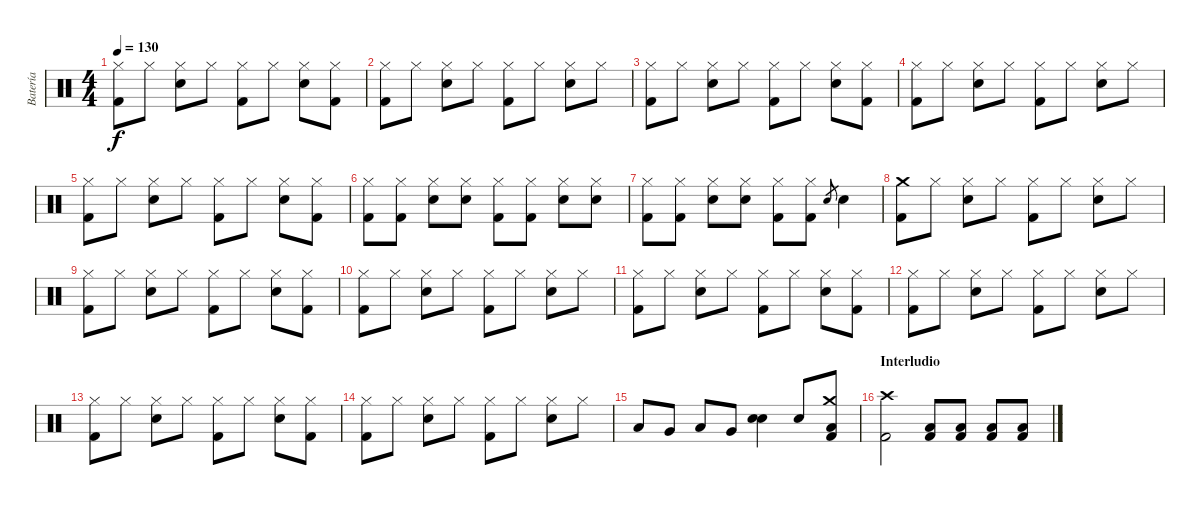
\track ("Batería" "Batería") {instrument percussion}
\staff {score}
\articulation defaults
\ts (4 4)
\tempo 130
\clef neutral
\ks c
("Hi-Hat (closed)" "Kick (hit) 2").8{dy f} "Hi-Hat (closed)".8 ("Hi-Hat (closed)" "Snare (hit) 2").8 "Hi-Hat (closed)".8 ("Hi-Hat (closed)" "Kick (hit) 2").8 "Hi-Hat (closed)".8 ("Hi-Hat (closed)" "Snare (hit) 2").8 ("Hi-Hat (closed)" "Kick (hit) 2").8 |
("Hi-Hat (closed)" "Kick (hit) 2").8 "Hi-Hat (closed)".8 ("Hi-Hat (closed)" "Snare (hit) 2").8 "Hi-Hat (closed)".8 ("Hi-Hat (closed)" "Kick (hit) 2").8 "Hi-Hat (closed)".8 ("Hi-Hat (closed)" "Snare (hit) 2").8 "Hi-Hat (closed)".8 |
("Hi-Hat (closed)" "Kick (hit) 2").8 "Hi-Hat (closed)".8 ("Hi-Hat (closed)" "Snare (hit) 2").8 "Hi-Hat (closed)".8 ("Hi-Hat (closed)" "Kick (hit) 2").8 "Hi-Hat (closed)".8 ("Hi-Hat (closed)" "Snare (hit) 2").8 ("Hi-Hat (closed)" "Kick (hit) 2").8 |
("Hi-Hat (closed)" "Kick (hit) 2").8 "Hi-Hat (closed)".8 ("Hi-Hat (closed)" "Snare (hit) 2").8 "Hi-Hat (closed)".8 ("Hi-Hat (closed)" "Kick (hit) 2").8 "Hi-Hat (closed)".8 ("Hi-Hat (closed)" "Snare (hit) 2").8 "Hi-Hat (closed)".8 |
("Hi-Hat (closed)" "Kick (hit) 2").8 "Hi-Hat (closed)".8 ("Hi-Hat (closed)" "Snare (hit) 2").8 "Hi-Hat (closed)".8 ("Hi-Hat (closed)" "Kick (hit) 2").8 "Hi-Hat (closed)".8 ("Hi-Hat (closed)" "Snare (hit) 2").8 ("Hi-Hat (closed)" "Kick (hit) 2").8 |
("Hi-Hat (closed)" "Kick (hit) 2").8 ("Hi-Hat (closed)" "Kick (hit) 2").8 ("Hi-Hat (closed)" "Snare (hit) 2").8 ("Hi-Hat (closed)" "Snare (hit) 2").8 ("Hi-Hat (closed)" "Kick (hit) 2").8 ("Hi-Hat (closed)" "Kick (hit) 2").8 ("Hi-Hat (closed)" "Snare (hit) 2").8 ("Hi-Hat (closed)" "Snare (hit) 2").8 |
("Hi-Hat (closed)" "Kick (hit) 2").8 ("Hi-Hat (closed)" "Kick (hit) 2").8 ("Hi-Hat (closed)" "Snare (hit) 2").8 ("Hi-Hat (closed)" "Snare (hit) 2").8 ("Hi-Hat (closed)" "Kick (hit) 2").8 ("Hi-Hat (closed)" "Kick (hit) 2").8 "Snare (hit) 2".8{gr} "Snare (hit) 2".4 |
("Crash medium (hit)" "Kick (hit) 2").8 "Hi-Hat (closed)".8 ("Hi-Hat (closed)" "Snare (hit) 2").8 "Hi-Hat (closed)".8 ("Hi-Hat (closed)" "Kick (hit) 2").8 "Hi-Hat (closed)".8 ("Hi-Hat (closed)" "Snare (hit) 2").8 "Hi-Hat (closed)".8 |
("Hi-Hat (closed)" "Kick (hit) 2").8 "Hi-Hat (closed)".8 ("Hi-Hat (closed)" "Snare (hit) 2").8 "Hi-Hat (closed)".8 ("Hi-Hat (closed)" "Kick (hit) 2").8 "Hi-Hat (closed)".8 ("Hi-Hat (closed)" "Snare (hit) 2").8 ("Hi-Hat (closed)" "Kick (hit) 2").8 |
("Hi-Hat (closed)" "Kick (hit) 2").8 "Hi-Hat (closed)".8 ("Hi-Hat (closed)" "Snare (hit) 2").8 "Hi-Hat (closed)".8 ("Hi-Hat (closed)" "Kick (hit) 2").8 "Hi-Hat (closed)".8 ("Hi-Hat (closed)" "Snare (hit) 2").8 "Hi-Hat (closed)".8 |
("Hi-Hat (closed)" "Kick (hit) 2").8 "Hi-Hat (closed)".8 ("Hi-Hat (closed)" "Snare (hit) 2").8 "Hi-Hat (closed)".8 ("Hi-Hat (closed)" "Kick (hit) 2").8 "Hi-Hat (closed)".8 ("Hi-Hat (closed)" "Snare (hit) 2").8 ("Hi-Hat (closed)" "Kick (hit) 2").8 |
("Hi-Hat (closed)" "Kick (hit) 2").8 "Hi-Hat (closed)".8 ("Hi-Hat (closed)" "Snare (hit) 2").8 "Hi-Hat (closed)".8 ("Hi-Hat (closed)" "Kick (hit) 2").8 "Hi-Hat (closed)".8 ("Hi-Hat (closed)" "Snare (hit) 2").8 "Hi-Hat (closed)".8 |
("Hi-Hat (closed)" "Kick (hit) 2").8 "Hi-Hat (closed)".8 ("Hi-Hat (closed)" "Snare (hit) 2").8 "Hi-Hat (closed)".8 ("Hi-Hat (closed)" "Kick (hit) 2").8 "Hi-Hat (closed)".8 ("Hi-Hat (closed)" "Snare (hit) 2").8 ("Hi-Hat (closed)" "Kick (hit) 2").8 |
("Hi-Hat (closed)" "Kick (hit) 2").8 "Hi-Hat (closed)".8 ("Hi-Hat (closed)" "Snare (hit) 2").8 "Hi-Hat (closed)".8 ("Hi-Hat (closed)" "Kick (hit) 2").8 "Hi-Hat (closed)".8 ("Hi-Hat (closed)" "Snare (hit) 2").8 "Hi-Hat (closed)".8 |
"Low Tom (hit)".8 "Very Low Tom (hit)".8 "Low Tom (hit)".8 "Very Low Tom (hit)".8 ("Snare (hit) 2" "Snare (hit) 2").4 "Snare (hit) 2".8 ("Crash medium (hit)" "Low Tom (hit)" "Kick (hit) 2").8 |
\section ("" "Interludio")
("Crash high (hit)" "Kick (hit) 2").2 ("Low Tom (hit)" "Kick (hit) 2").8 ("Low Tom (hit)" "Kick (hit) 2").8 ("Low Tom (hit)" "Kick (hit) 2").8 ("Low Tom (hit)" "Kick (hit) 2").8
